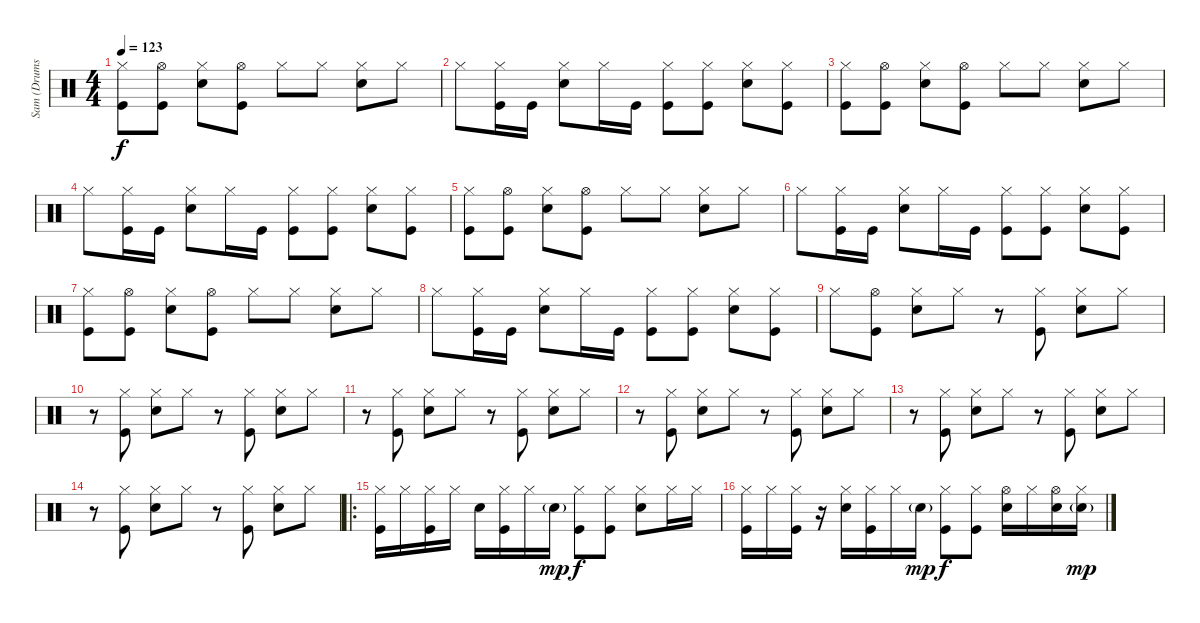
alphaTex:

\track ("Sam (Drums)" "Sam (Drums") {instrument percussion}
\staff {score}
\articulation defaults
\ts (4 4)
\tempo 123
\clef neutral
\ks c
("Hi-Hat (closed)" "Kick (hit)").8{dy f} ("Hi-Hat (open)" "Kick (hit)").8 ("Hi-Hat (closed)" "Snare (hit) 2").8 ("Hi-Hat (open)" "Kick (hit)").8 "Hi-Hat (closed)".8 "Hi-Hat (closed)".8 ("Hi-Hat (closed)" "Snare (hit) 2").8 "Hi-Hat (closed)".8 |
"Hi-Hat (closed)".8 ("Hi-Hat (closed)" "Kick (hit)").16 "Kick (hit)".16 ("Hi-Hat (closed)" "Snare (hit) 2").8 "Hi-Hat (closed)".16 "Kick (hit)".16 ("Hi-Hat (closed)" "Kick (hit)").8 ("Hi-Hat (closed)" "Kick (hit)").8 ("Hi-Hat (closed)" "Snare (hit) 2").8 ("Hi-Hat (closed)" "Kick (hit)").8 |
("Hi-Hat (closed)" "Kick (hit)").8 ("Hi-Hat (open)" "Kick (hit)").8 ("Hi-Hat (closed)" "Snare (hit) 2").8 ("Hi-Hat (open)" "Kick (hit)").8 "Hi-Hat (closed)".8 "Hi-Hat (closed)".8 ("Hi-Hat (closed)" "Snare (hit) 2").8 "Hi-Hat (closed)".8 |
"Hi-Hat (closed)".8 ("Hi-Hat (closed)" "Kick (hit)").16 "Kick (hit)".16 ("Hi-Hat (closed)" "Snare (hit) 2").8 "Hi-Hat (closed)".16 "Kick (hit)".16 ("Hi-Hat (closed)" "Kick (hit)").8 ("Hi-Hat (closed)" "Kick (hit)").8 ("Hi-Hat (closed)" "Snare (hit) 2").8 ("Hi-Hat (closed)" "Kick (hit)").8 |
("Hi-Hat (closed)" "Kick (hit)").8 ("Hi-Hat (open)" "Kick (hit)").8 ("Hi-Hat (closed)" "Snare (hit) 2").8 ("Hi-Hat (open)" "Kick (hit)").8 "Hi-Hat (closed)".8 "Hi-Hat (closed)".8 ("Hi-Hat (closed)" "Snare (hit) 2").8 "Hi-Hat (closed)".8 |
"Hi-Hat (closed)".8 ("Hi-Hat (closed)" "Kick (hit)").16 "Kick (hit)".16 ("Hi-Hat (closed)" "Snare (hit) 2").8 "Hi-Hat (closed)".16 "Kick (hit)".16 ("Hi-Hat (closed)" "Kick (hit)").8 ("Hi-Hat (closed)" "Kick (hit)").8 ("Hi-Hat (closed)" "Snare (hit) 2").8 ("Hi-Hat (closed)" "Kick (hit)").8 |
("Hi-Hat (closed)" "Kick (hit)").8 ("Hi-Hat (open)" "Kick (hit)").8 ("Hi-Hat (closed)" "Snare (hit) 2").8 ("Hi-Hat (open)" "Kick (hit)").8 "Hi-Hat (closed)".8 "Hi-Hat (closed)".8 ("Hi-Hat (closed)" "Snare (hit) 2").8 "Hi-Hat (closed)".8 |
"Hi-Hat (closed)".8 ("Hi-Hat (closed)" "Kick (hit)").16 "Kick (hit)".16 ("Hi-Hat (closed)" "Snare (hit) 2").8 "Hi-Hat (closed)".16 "Kick (hit)".16 ("Hi-Hat (closed)" "Kick (hit)").8 ("Hi-Hat (closed)" "Kick (hit)").8 ("Hi-Hat (closed)" "Snare (hit) 2").8 ("Hi-Hat (closed)" "Kick (hit)").8 |
"Hi-Hat (closed)".8 ("Hi-Hat (open)" "Kick (hit)").8 ("Hi-Hat (closed)" "Snare (hit) 2").8 "Hi-Hat (closed)".8 r.8 ("Hi-Hat (closed)" "Kick (hit)").8 ("Hi-Hat (closed)" "Snare (hit) 2").8 "Hi-Hat (closed)".8 |
r.8 ("Hi-Hat (closed)" "Kick (hit)").8 ("Hi-Hat (closed)" "Snare (hit) 2").8 "Hi-Hat (closed)".8 r.8 ("Hi-Hat (closed)" "Kick (hit)").8 ("Hi-Hat (closed)" "Snare (hit) 2").8 "Hi-Hat (closed)".8 |
r.8 ("Hi-Hat (closed)" "Kick (hit)").8 ("Hi-Hat (closed)" "Snare (hit) 2").8 "Hi-Hat (closed)".8 r.8 ("Hi-Hat (closed)" "Kick (hit)").8 ("Hi-Hat (closed)" "Snare (hit) 2").8 "Hi-Hat (closed)".8 |
r.8 ("Hi-Hat (closed)" "Kick (hit)").8 ("Hi-Hat (closed)" "Snare (hit) 2").8 "Hi-Hat (closed)".8 r.8 ("Hi-Hat (closed)" "Kick (hit)").8 ("Hi-Hat (closed)" "Snare (hit) 2").8 "Hi-Hat (closed)".8 |
r.8 ("Hi-Hat (closed)" "Kick (hit)").8 ("Hi-Hat (closed)" "Snare (hit) 2").8 "Hi-Hat (closed)".8 r.8 ("Hi-Hat (closed)" "Kick (hit)").8 ("Hi-Hat (closed)" "Snare (hit) 2").8 "Hi-Hat (closed)".8 |
r.8 ("Hi-Hat (closed)" "Kick (hit)").8 ("Hi-Hat (closed)" "Snare (hit) 2").8 "Hi-Hat (closed)".8 r.8 ("Hi-Hat (closed)" "Kick (hit)").8 ("Hi-Hat (closed)" "Snare (hit) 2").8 "Hi-Hat (closed)".8 |
\ro
("Hi-Hat (closed)" "Kick (hit)").16 "Hi-Hat (closed)".16 ("Hi-Hat (closed)" "Kick (hit)").16 "Hi-Hat (closed)".16 "Snare (hit) 2".16 ("Hi-Hat (closed)" "Kick (hit)").16 "Hi-Hat (closed)".16 "Snare (hit) 2"{g}.16{dy mp} ("Hi-Hat (closed)" "Kick (hit)").8{dy f} ("Hi-Hat (closed)" "Kick (hit)").8 ("Hi-Hat (closed)" "Snare (hit) 2").8 "Hi-Hat (closed)".16 "Hi-Hat (closed)".16 |
("Hi-Hat (closed)" "Kick (hit)").16 "Hi-Hat (closed)".16 ("Hi-Hat (closed)" "Kick (hit)").16 r.16 ("Hi-Hat (closed)" "Snare (hit) 2").16 ("Hi-Hat (closed)" "Kick (hit)").16 "Hi-Hat (closed)".16 "Snare (hit) 2"{g}.16{dy mp} ("Hi-Hat (closed)" "Kick (hit)").8{dy f} ("Hi-Hat (closed)" "Kick (hit)").8 ("Hi-Hat (open)" "Snare (hit) 2").16 "Hi-Hat (closed)".16 ("Hi-Hat (open)" "Snare (hit) 2").16 ("Hi-Hat (closed)" "Snare (hit) 2"{g}).16{dy mp}
